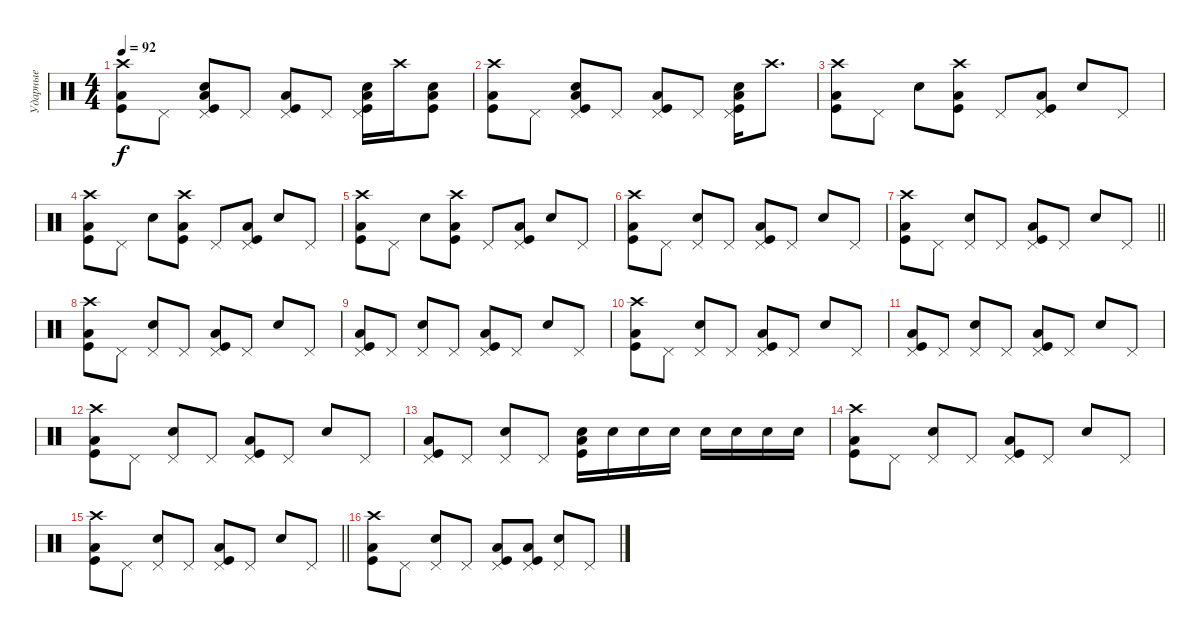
\track ("Ударные" "Ударные") {instrument percussion}
\staff {score}
\articulation defaults
\ts (4 4)
\tempo 92
\clef neutral
\ks c
("Crash high (hit)" "Low Tom (hit)" "Kick (hit)").8{dy f} "Pedal Hi-Hat (hit)".8 ("Pedal Hi-Hat (hit)" "Electric Snare (hit)" "Low Tom (hit)" "Kick (hit)").8 "Pedal Hi-Hat (hit)".8 ("Pedal Hi-Hat (hit)" "Low Tom (hit)" "Kick (hit)").8 "Pedal Hi-Hat (hit)".8 ("Pedal Hi-Hat (hit)" "Electric Snare (hit)" "Low Tom (hit)" "Kick (hit)").16 "Crash high (hit)".16 ("Electric Snare (hit)" "Kick (hit)" "Low Tom (hit)").8 |
("Crash high (hit)" "Low Tom (hit)" "Kick (hit)").8 "Pedal Hi-Hat (hit)".8 ("Pedal Hi-Hat (hit)" "Electric Snare (hit)" "Low Tom (hit)" "Kick (hit)").8 "Pedal Hi-Hat (hit)".8 ("Pedal Hi-Hat (hit)" "Low Tom (hit)" "Kick (hit)").8 "Pedal Hi-Hat (hit)".8 ("Pedal Hi-Hat (hit)" "Electric Snare (hit)" "Kick (hit)" "Low Tom (hit)").16 "Crash high (hit)".8{d} |
("Crash high (hit)" "Low Tom (hit)" "Kick (hit)").8 "Pedal Hi-Hat (hit)".8 "Electric Snare (hit)".8 ("Crash high (hit)" "Low Tom (hit)" "Kick (hit)").8 "Pedal Hi-Hat (hit)".8 ("Pedal Hi-Hat (hit)" "Low Tom (hit)" "Kick (hit)").8 "Electric Snare (hit)".8 "Pedal Hi-Hat (hit)".8 |
("Crash high (hit)" "Low Tom (hit)" "Kick (hit)").8 "Pedal Hi-Hat (hit)".8 "Electric Snare (hit)".8 ("Crash high (hit)" "Low Tom (hit)" "Kick (hit)").8 "Pedal Hi-Hat (hit)".8 ("Pedal Hi-Hat (hit)" "Low Tom (hit)" "Kick (hit)").8 "Electric Snare (hit)".8 "Pedal Hi-Hat (hit)".8 |
("Crash high (hit)" "Low Tom (hit)" "Kick (hit)").8 "Pedal Hi-Hat (hit)".8 "Electric Snare (hit)".8 ("Crash high (hit)" "Low Tom (hit)" "Kick (hit)").8 "Pedal Hi-Hat (hit)".8 ("Pedal Hi-Hat (hit)" "Low Tom (hit)" "Kick (hit)").8 "Electric Snare (hit)".8 "Pedal Hi-Hat (hit)".8 |
("Crash high (hit)" "Low Tom (hit)" "Kick (hit)").8 "Pedal Hi-Hat (hit)".8 ("Pedal Hi-Hat (hit)" "Electric Snare (hit)").8 "Pedal Hi-Hat (hit)".8 ("Pedal Hi-Hat (hit)" "Low Tom (hit)" "Kick (hit)").8 "Pedal Hi-Hat (hit)".8 "Electric Snare (hit)".8 "Pedal Hi-Hat (hit)".8 |
\barLineRight lightlight
("Crash high (hit)" "Low Tom (hit)" "Kick (hit)").8 "Pedal Hi-Hat (hit)".8 ("Pedal Hi-Hat (hit)" "Electric Snare (hit)").8 "Pedal Hi-Hat (hit)".8 ("Pedal Hi-Hat (hit)" "Low Tom (hit)" "Kick (hit)").8 "Pedal Hi-Hat (hit)".8 "Electric Snare (hit)".8 "Pedal Hi-Hat (hit)".8 |
("Crash high (hit)" "Low Tom (hit)" "Kick (hit)").8 "Pedal Hi-Hat (hit)".8 ("Pedal Hi-Hat (hit)" "Electric Snare (hit)").8 "Pedal Hi-Hat (hit)".8 ("Pedal Hi-Hat (hit)" "Low Tom (hit)" "Kick (hit)").8 "Pedal Hi-Hat (hit)".8 "Electric Snare (hit)".8 "Pedal Hi-Hat (hit)".8 |
("Pedal Hi-Hat (hit)" "Low Tom (hit)" "Kick (hit)").8 "Pedal Hi-Hat (hit)".8 ("Pedal Hi-Hat (hit)" "Electric Snare (hit)").8 "Pedal Hi-Hat (hit)".8 ("Pedal Hi-Hat (hit)" "Low Tom (hit)" "Kick (hit)").8 "Pedal Hi-Hat (hit)".8 "Electric Snare (hit)".8 "Pedal Hi-Hat (hit)".8 |
("Crash high (hit)" "Low Tom (hit)" "Kick (hit)").8 "Pedal Hi-Hat (hit)".8 ("Pedal Hi-Hat (hit)" "Electric Snare (hit)").8 "Pedal Hi-Hat (hit)".8 ("Pedal Hi-Hat (hit)" "Low Tom (hit)" "Kick (hit)").8 "Pedal Hi-Hat (hit)".8 "Electric Snare (hit)".8 "Pedal Hi-Hat (hit)".8 |
("Pedal Hi-Hat (hit)" "Low Tom (hit)" "Kick (hit)").8 "Pedal Hi-Hat (hit)".8 ("Pedal Hi-Hat (hit)" "Electric Snare (hit)").8 "Pedal Hi-Hat (hit)".8 ("Pedal Hi-Hat (hit)" "Low Tom (hit)" "Kick (hit)").8 "Pedal Hi-Hat (hit)".8 "Electric Snare (hit)".8 "Pedal Hi-Hat (hit)".8 |
("Crash high (hit)" "Low Tom (hit)" "Kick (hit)").8 "Pedal Hi-Hat (hit)".8 ("Pedal Hi-Hat (hit)" "Electric Snare (hit)").8 "Pedal Hi-Hat (hit)".8 ("Pedal Hi-Hat (hit)" "Low Tom (hit)" "Kick (hit)").8 "Pedal Hi-Hat (hit)".8 "Electric Snare (hit)".8 "Pedal Hi-Hat (hit)".8 |
("Pedal Hi-Hat (hit)" "Low Tom (hit)" "Kick (hit)").8 "Pedal Hi-Hat (hit)".8 ("Pedal Hi-Hat (hit)" "Electric Snare (hit)").8 "Pedal Hi-Hat (hit)".8 ("Electric Snare (hit)" "Low Tom (hit)" "Kick (hit)").16 "Electric Snare (hit)".16 "Electric Snare (hit)".16 "Electric Snare (hit)".16 "Snare (hit) 2".16 "Snare (hit) 2".16 "Snare (hit) 2".16 "Snare (hit) 2".16 |
("Crash high (hit)" "Low Tom (hit)" "Kick (hit)").8 "Pedal Hi-Hat (hit)".8 ("Pedal Hi-Hat (hit)" "Electric Snare (hit)").8 "Pedal Hi-Hat (hit)".8 ("Pedal Hi-Hat (hit)" "Low Tom (hit)" "Kick (hit)").8 "Pedal Hi-Hat (hit)".8 "Electric Snare (hit)".8 "Pedal Hi-Hat (hit)".8 |
\barLineRight lightlight
("Crash high (hit)" "Low Tom (hit)" "Kick (hit)").8 "Pedal Hi-Hat (hit)".8 ("Pedal Hi-Hat (hit)" "Electric Snare (hit)").8 "Pedal Hi-Hat (hit)".8 ("Pedal Hi-Hat (hit)" "Low Tom (hit)" "Kick (hit)").8 "Pedal Hi-Hat (hit)".8 "Electric Snare (hit)".8 "Pedal Hi-Hat (hit)".8 |
("Crash high (hit)" "Low Tom (hit)" "Kick (hit)").8 "Pedal Hi-Hat (hit)".8 ("Pedal Hi-Hat (hit)" "Electric Snare (hit)").8 "Pedal Hi-Hat (hit)".8 ("Pedal Hi-Hat (hit)" "Low Tom (hit)" "Kick (hit)").8 ("Pedal Hi-Hat (hit)" "Low Tom (hit)" "Kick (hit)").8 ("Pedal Hi-Hat (hit)" "Electric Snare (hit)").8 "Pedal Hi-Hat (hit)".8
